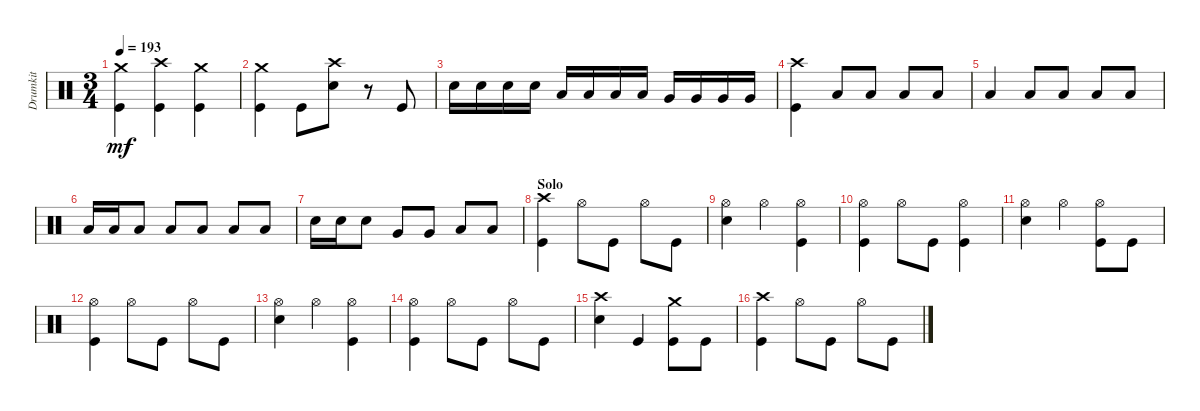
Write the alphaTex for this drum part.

\track ("Drumkit" "Drumkit") {instrument percussion}
\staff {score}
\articulation defaults
\ts (3 4)
\tempo 193
\clef neutral
\ks c
("Kick (hit)" "Crash medium (hit)").4{dy mf} ("Kick (hit)" "Crash high (hit)").4 ("Crash medium (hit)" "Kick (hit)").4 |
("Crash medium (hit)" "Kick (hit)").4 "Kick (hit)".8 ("Snare (hit) 2" "Crash high (hit)").8 r.8 "Kick (hit)".8 |
"Snare (hit) 2".16 "Snare (hit) 2".16 "Snare (hit) 2".16 "Snare (hit) 2".16 "Low Tom (hit)".16 "Low Tom (hit)".16 "Low Tom (hit)".16 "Low Tom (hit)".16 "Very Low Tom (hit)".16 "Very Low Tom (hit)".16 "Very Low Tom (hit)".16 "Very Low Tom (hit)".16 |
("Kick (hit)" "Crash high (hit)").4 "Low Floor Tom (hit)".8 "Low Floor Tom (hit)".8 "Low Floor Tom (hit)".8 "Low Floor Tom (hit)".8 |
"Low Floor Tom (hit)".4 "Low Floor Tom (hit)".8 "Low Floor Tom (hit)".8 "Low Floor Tom (hit)".8 "Low Floor Tom (hit)".8 |
"Low Floor Tom (hit)".16 "Low Floor Tom (hit)".16 "Low Floor Tom (hit)".8 "Low Floor Tom (hit)".8 "Low Floor Tom (hit)".8 "Low Floor Tom (hit)".8 "Low Floor Tom (hit)".8 |
"Snare (hit) 2".16 "Snare (hit) 2".16 "Snare (hit) 2".8 "Very Low Tom (hit)".8 "Very Low Tom (hit)".8 "Low Floor Tom (hit)".8 "Low Floor Tom (hit)".8 |
\section ("" "Solo")
("Crash high (hit)" "Kick (hit)").4 "Hi-Hat (open)".8 "Kick (hit)".8 "Hi-Hat (open)".8 "Kick (hit)".8 |
("Hi-Hat (open)" "Snare (hit) 2").4 "Hi-Hat (open)".4 ("Kick (hit)" "Hi-Hat (open)").4 |
("Kick (hit)" "Hi-Hat (open)").4 "Hi-Hat (open)".8 "Kick (hit)".8 ("Hi-Hat (open)" "Kick (hit)").4 |
("Hi-Hat (open)" "Snare (hit) 2").4 "Hi-Hat (open)".4 ("Kick (hit)" "Hi-Hat (open)").8 "Kick (hit)".8 |
("Kick (hit)" "Hi-Hat (open)").4 "Hi-Hat (open)".8 "Kick (hit)".8 "Hi-Hat (open)".8 "Kick (hit)".8 |
("Hi-Hat (open)" "Snare (hit) 2").4 "Hi-Hat (open)".4 ("Kick (hit)" "Hi-Hat (open)").4 |
("Kick (hit)" "Hi-Hat (open)").4 "Hi-Hat (open)".8 "Kick (hit)".8 "Hi-Hat (open)".8 "Kick (hit)".8 |
("Snare (hit) 2" "Crash high (hit)").4 "Kick (hit)".4 ("Kick (hit)" "Crash medium (hit)").8 "Kick (hit)".8 |
("Crash high (hit)" "Kick (hit)").4 "Hi-Hat (open)".8 "Kick (hit)".8 "Hi-Hat (open)".8 "Kick (hit)".8
